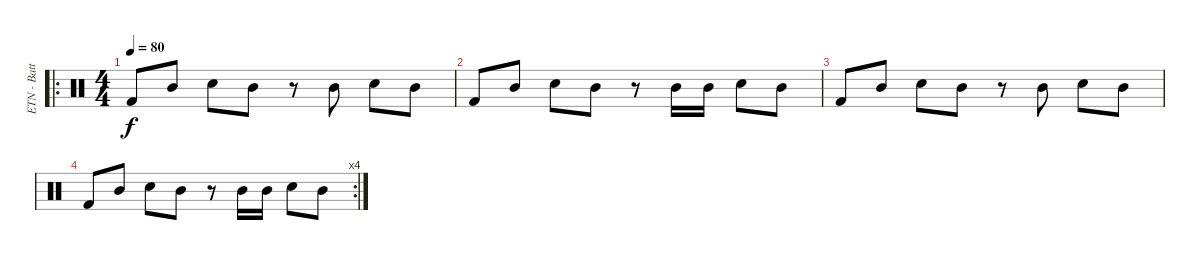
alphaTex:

\track ("ETN - Batterie" "ETN - Batt") {instrument percussion}
\staff {score}
\articulation defaults
\ro
\ts (4 4)
\tempo 80
\clef neutral
\ks c "Kick (hit) 2".8{dy f} "Mid Tom (hit)".8 "Snare (hit) 2".8 "Mid Tom (hit)".8
r.8 "Mid Tom (hit)".8 "Snare (hit) 2".8 "Mid Tom (hit)".8 |
"Kick (hit) 2".8 "Mid Tom (hit)".8 "Snare (hit) 2".8 "Mid Tom (hit)".8 r.8 "Mid Tom (hit)".16 "Mid Tom (hit)".16 "Snare (hit) 2".8 "Mid Tom (hit)".8 |
"Kick (hit) 2".8 "Mid Tom (hit)".8 "Snare (hit) 2".8 "Mid Tom (hit)".8 r.8 "Mid Tom (hit)".8 "Snare (hit) 2".8 "Mid Tom (hit)".8 |
\rc 4 "Kick (hit) 2".8 "Mid Tom (hit)".8 "Snare (hit) 2".8 "Mid Tom (hit)".8
r.8 "Mid Tom (hit)".16 "Mid Tom (hit)".16 "Snare (hit) 2".8 "Mid Tom (hit)".8
